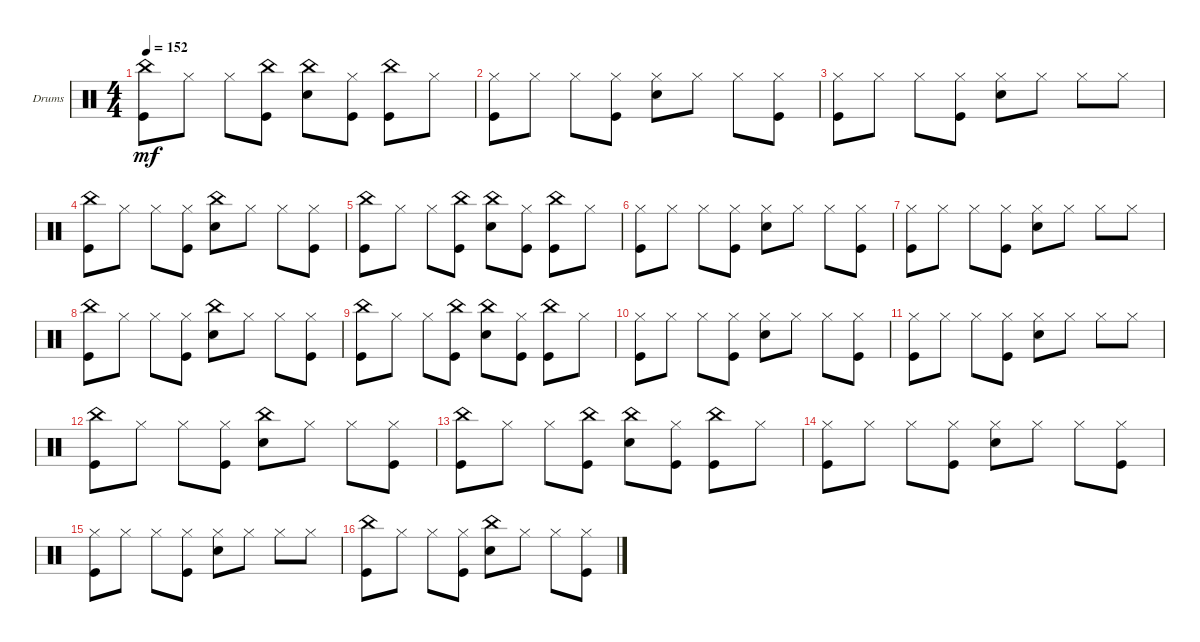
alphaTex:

\defaultSystemsLayout 4
\bracketExtendMode groupsimilarinstruments
\firstSystemTrackNameOrientation horizontal
\otherSystemsTrackNameOrientation horizontal
\track ("Drumkit" "Drums") {instrument percussion}
\staff {score}
\articulation defaults
\ts (4 4)
\tempo 152
\clef neutral
\ks c
("Kick (hit)" "China (hit)").8{dy mf} "Hi-Hat (closed)".8 "Hi-Hat (closed)".8 ("China (hit)" "Kick (hit)").8 ("China (hit)" "Snare (hit) 2").8 ("Hi-Hat (closed)" "Kick (hit)").8 ("China (hit)" "Kick (hit)").8 "Hi-Hat (closed)".8 |
("Kick (hit)" "Hi-Hat (closed)").8 "Hi-Hat (closed)".8 "Hi-Hat (closed)".8 ("Hi-Hat (closed)" "Kick (hit)").8 ("Hi-Hat (closed)" "Snare (hit) 2").8 "Hi-Hat (closed)".8 "Hi-Hat (closed)".8 ("Hi-Hat (closed)" "Kick (hit)").8 |
("Kick (hit)" "Hi-Hat (closed)").8 "Hi-Hat (closed)".8 "Hi-Hat (closed)".8 ("Hi-Hat (closed)" "Kick (hit)").8 ("Hi-Hat (closed)" "Snare (hit) 2").8 "Hi-Hat (closed)".8 "Hi-Hat (closed)".8 "Hi-Hat (closed)".8 |
("Kick (hit)" "China (hit)").8 "Hi-Hat (closed)".8 "Hi-Hat (closed)".8 ("Hi-Hat (closed)" "Kick (hit)").8 ("Snare (hit) 2" "China (hit)").8 "Hi-Hat (closed)".8 "Hi-Hat (closed)".8 ("Hi-Hat (closed)" "Kick (hit)").8 |
("Kick (hit)" "China (hit)").8 "Hi-Hat (closed)".8 "Hi-Hat (closed)".8 ("China (hit)" "Kick (hit)").8 ("China (hit)" "Snare (hit) 2").8 ("Hi-Hat (closed)" "Kick (hit)").8 ("China (hit)" "Kick (hit)").8 "Hi-Hat (closed)".8 |
("Kick (hit)" "Hi-Hat (closed)").8 "Hi-Hat (closed)".8 "Hi-Hat (closed)".8 ("Hi-Hat (closed)" "Kick (hit)").8 ("Hi-Hat (closed)" "Snare (hit) 2").8 "Hi-Hat (closed)".8 "Hi-Hat (closed)".8 ("Hi-Hat (closed)" "Kick (hit)").8 |
("Kick (hit)" "Hi-Hat (closed)").8 "Hi-Hat (closed)".8 "Hi-Hat (closed)".8 ("Hi-Hat (closed)" "Kick (hit)").8 ("Hi-Hat (closed)" "Snare (hit) 2").8 "Hi-Hat (closed)".8 "Hi-Hat (closed)".8 "Hi-Hat (closed)".8 |
("Kick (hit)" "China (hit)").8 "Hi-Hat (closed)".8 "Hi-Hat (closed)".8 ("Hi-Hat (closed)" "Kick (hit)").8 ("Snare (hit) 2" "China (hit)").8 "Hi-Hat (closed)".8 "Hi-Hat (closed)".8 ("Hi-Hat (closed)" "Kick (hit)").8 |
("Kick (hit)" "China (hit)").8 "Hi-Hat (closed)".8 "Hi-Hat (closed)".8 ("China (hit)" "Kick (hit)").8 ("China (hit)" "Snare (hit) 2").8 ("Hi-Hat (closed)" "Kick (hit)").8 ("China (hit)" "Kick (hit)").8 "Hi-Hat (closed)".8 |
("Kick (hit)" "Hi-Hat (closed)").8 "Hi-Hat (closed)".8 "Hi-Hat (closed)".8 ("Hi-Hat (closed)" "Kick (hit)").8 ("Hi-Hat (closed)" "Snare (hit) 2").8 "Hi-Hat (closed)".8 "Hi-Hat (closed)".8 ("Hi-Hat (closed)" "Kick (hit)").8 |
("Kick (hit)" "Hi-Hat (closed)").8 "Hi-Hat (closed)".8 "Hi-Hat (closed)".8 ("Hi-Hat (closed)" "Kick (hit)").8 ("Hi-Hat (closed)" "Snare (hit) 2").8 "Hi-Hat (closed)".8 "Hi-Hat (closed)".8 "Hi-Hat (closed)".8 |
("Kick (hit)" "China (hit)").8 "Hi-Hat (closed)".8 "Hi-Hat (closed)".8 ("Hi-Hat (closed)" "Kick (hit)").8 ("Snare (hit) 2" "China (hit)").8 "Hi-Hat (closed)".8 "Hi-Hat (closed)".8 ("Hi-Hat (closed)" "Kick (hit)").8 |
("Kick (hit)" "China (hit)").8 "Hi-Hat (closed)".8 "Hi-Hat (closed)".8 ("China (hit)" "Kick (hit)").8 ("China (hit)" "Snare (hit) 2").8 ("Hi-Hat (closed)" "Kick (hit)").8 ("China (hit)" "Kick (hit)").8 "Hi-Hat (closed)".8 |
("Kick (hit)" "Hi-Hat (closed)").8 "Hi-Hat (closed)".8 "Hi-Hat (closed)".8 ("Hi-Hat (closed)" "Kick (hit)").8 ("Hi-Hat (closed)" "Snare (hit) 2").8 "Hi-Hat (closed)".8 "Hi-Hat (closed)".8 ("Hi-Hat (closed)" "Kick (hit)").8 |
("Kick (hit)" "Hi-Hat (closed)").8 "Hi-Hat (closed)".8 "Hi-Hat (closed)".8 ("Hi-Hat (closed)" "Kick (hit)").8 ("Hi-Hat (closed)" "Snare (hit) 2").8 "Hi-Hat (closed)".8 "Hi-Hat (closed)".8 "Hi-Hat (closed)".8 |
("Kick (hit)" "China (hit)").8 "Hi-Hat (closed)".8 "Hi-Hat (closed)".8 ("Hi-Hat (closed)" "Kick (hit)").8 ("Snare (hit) 2" "China (hit)").8 "Hi-Hat (closed)".8 "Hi-Hat (closed)".8 ("Hi-Hat (closed)" "Kick (hit)").8
